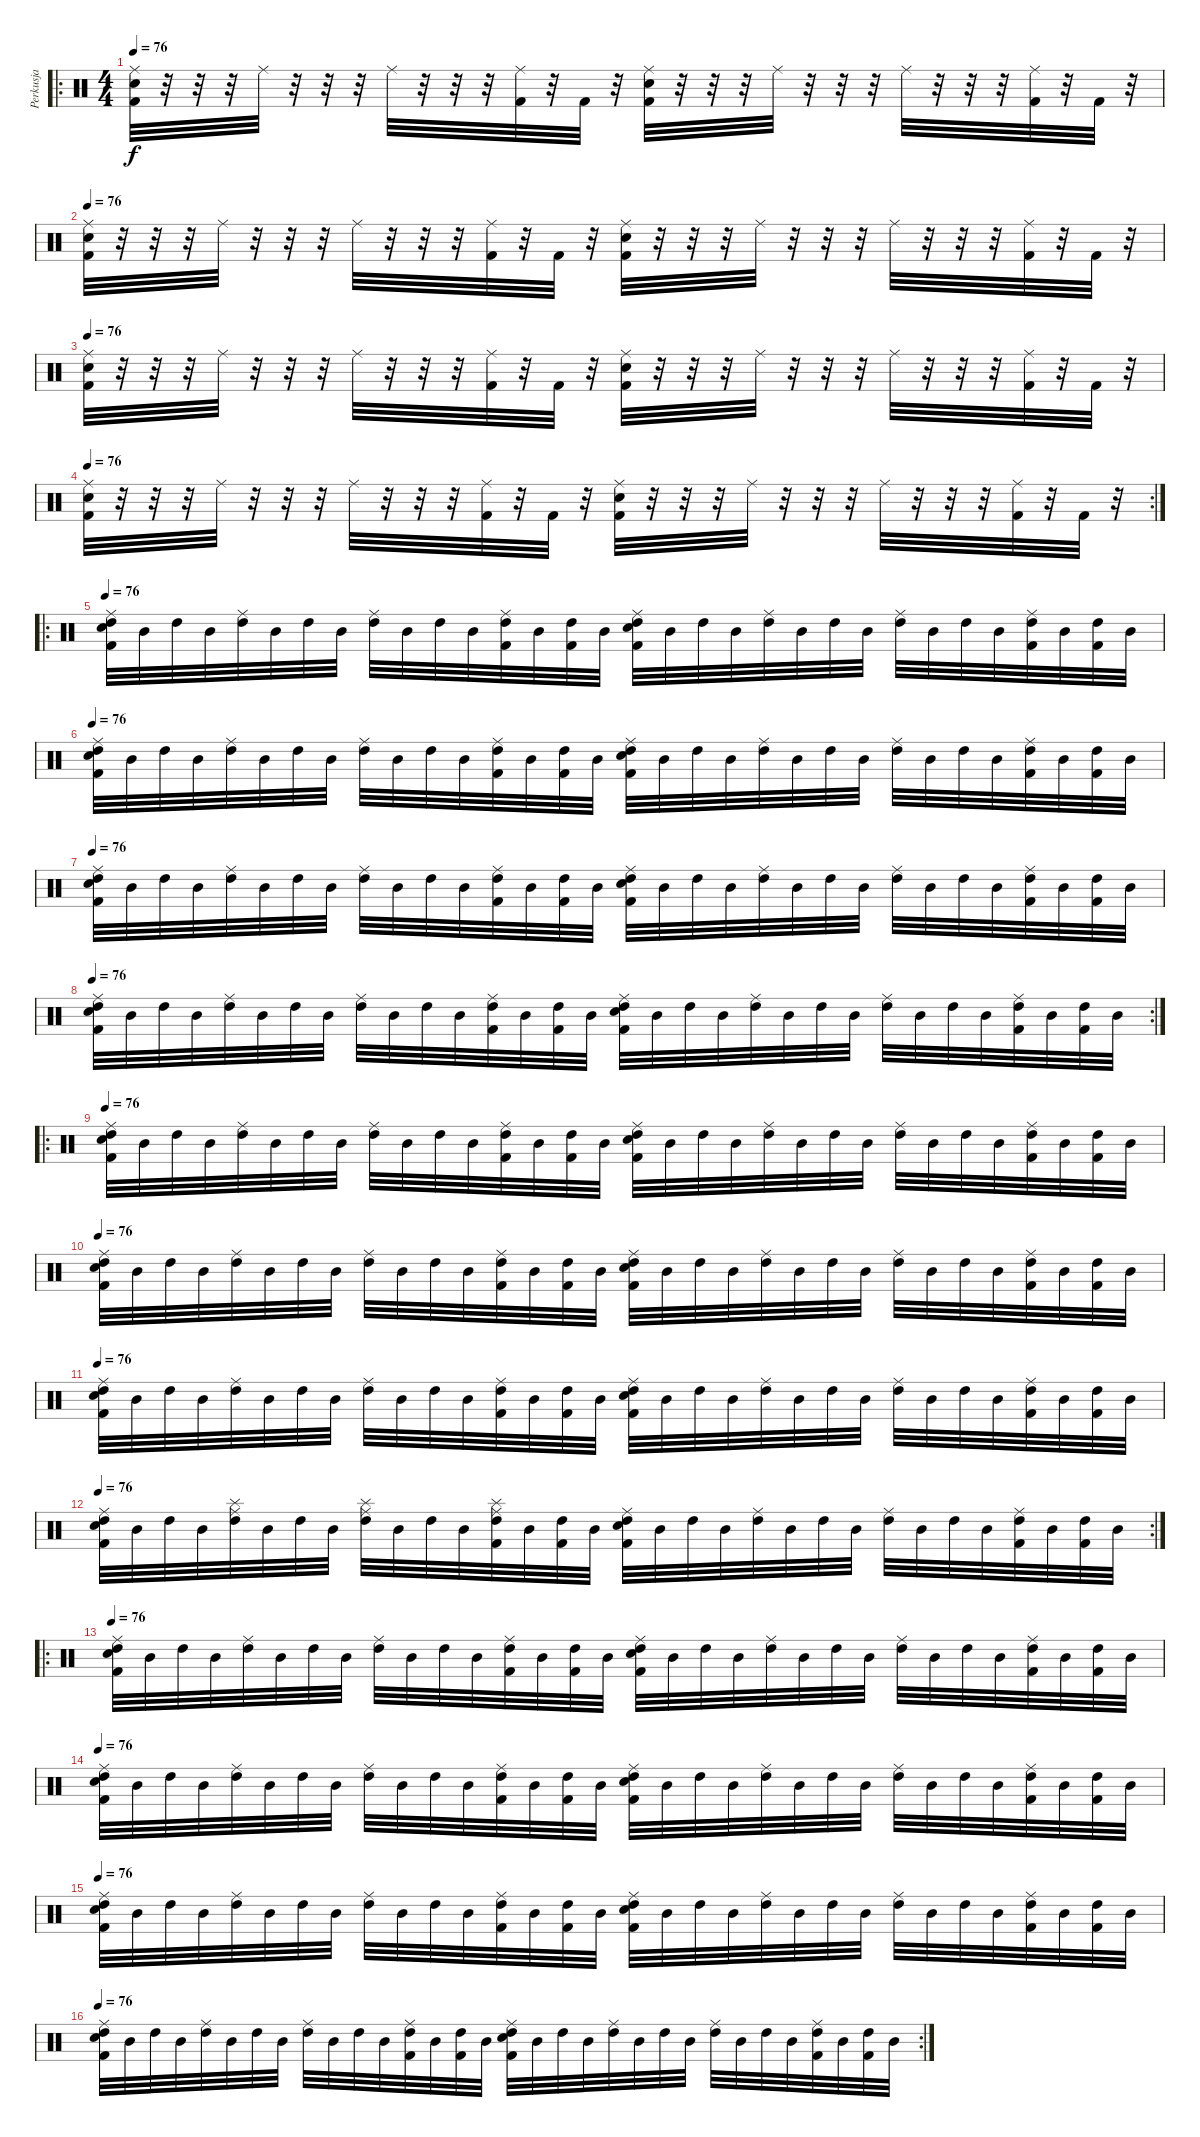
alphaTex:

\track ("Perkusja" "Perkusja") {instrument percussion}
\staff {score}
\articulation defaults
\ro
\ts (4 4)
\tempo 76
\clef neutral
\ks c
("Ride (middle)" "Snare (hit) 2" "Kick (hit) 2").32{dy f} r.32 r.32 r.32 "Ride (middle)".32 r.32 r.32 r.32 "Ride (middle)".32 r.32 r.32 r.32 ("Ride (middle)" "Kick (hit) 2").32 r.32 "Kick (hit) 2".32 r.32 ("Ride (middle)" "Snare (hit) 2" "Kick (hit) 2").32 r.32 r.32 r.32 "Ride (middle)".32 r.32 r.32 r.32 "Ride (middle)".32 r.32 r.32 r.32 ("Ride (middle)" "Kick (hit) 2").32 r.32 "Kick (hit) 2".32 r.32 |
\tempo 76
("Ride (middle)" "Snare (hit) 2" "Kick (hit) 2").32 r.32 r.32 r.32 "Ride (middle)".32 r.32 r.32 r.32 "Ride (middle)".32 r.32 r.32 r.32 ("Ride (middle)" "Kick (hit) 2").32 r.32 "Kick (hit) 2".32 r.32 ("Ride (middle)" "Snare (hit) 2" "Kick (hit) 2").32 r.32 r.32 r.32 "Ride (middle)".32 r.32 r.32 r.32 "Ride (middle)".32 r.32 r.32 r.32 ("Ride (middle)" "Kick (hit) 2").32 r.32 "Kick (hit) 2".32 r.32 |
\tempo 76
("Ride (middle)" "Snare (hit) 2" "Kick (hit) 2").32 r.32 r.32 r.32 "Ride (middle)".32 r.32 r.32 r.32 "Ride (middle)".32 r.32 r.32 r.32 ("Ride (middle)" "Kick (hit) 2").32 r.32 "Kick (hit) 2".32 r.32 ("Ride (middle)" "Snare (hit) 2" "Kick (hit) 2").32 r.32 r.32 r.32 "Ride (middle)".32 r.32 r.32 r.32 "Ride (middle)".32 r.32 r.32 r.32 ("Ride (middle)" "Kick (hit) 2").32 r.32 "Kick (hit) 2".32 r.32 |
\rc 2
\tempo 76
("Ride (middle)" "Snare (hit) 2" "Kick (hit) 2").32 r.32 r.32 r.32 "Ride (middle)".32 r.32 r.32 r.32 "Ride (middle)".32 r.32 r.32 r.32 ("Ride (middle)" "Kick (hit) 2").32 r.32 "Kick (hit) 2".32 r.32 ("Ride (middle)" "Snare (hit) 2" "Kick (hit) 2").32 r.32 r.32 r.32 "Ride (middle)".32 r.32 r.32 r.32 "Ride (middle)".32 r.32 r.32 r.32 ("Ride (middle)" "Kick (hit) 2").32 r.32 "Kick (hit) 2".32 r.32 |
\ro
\tempo 76
("Ride (middle)" "Snare (hit) 2" "Kick (hit) 2" "High Tom (hit)").32 "Mid Tom (hit)".32 "High Tom (hit)".32 "Mid Tom (hit)".32 ("Ride (middle)" "High Tom (hit)").32 "Mid Tom (hit)".32 "High Tom (hit)".32 "Mid Tom (hit)".32 ("Ride (middle)" "High Tom (hit)").32 "Mid Tom (hit)".32 "High Tom (hit)".32 "Mid Tom (hit)".32 ("Ride (middle)" "Kick (hit) 2" "High Tom (hit)").32 "Mid Tom (hit)".32 ("Kick (hit) 2" "High Tom (hit)").32 "Mid Tom (hit)".32 ("Ride (middle)" "Snare (hit) 2" "Kick (hit) 2" "High Tom (hit)").32 "Mid Tom (hit)".32 "High Tom (hit)".32 "Mid Tom (hit)".32 ("Ride (middle)" "High Tom (hit)").32 "Mid Tom (hit)".32 "High Tom (hit)".32 "Mid Tom (hit)".32 ("Ride (middle)" "High Tom (hit)").32 "Mid Tom (hit)".32 "High Tom (hit)".32 "Mid Tom (hit)".32 ("Ride (middle)" "Kick (hit) 2" "High Tom (hit)").32 "Mid Tom (hit)".32 ("Kick (hit) 2" "High Tom (hit)").32 "Mid Tom (hit)".32 |
\tempo 76
("Ride (middle)" "Snare (hit) 2" "Kick (hit) 2" "High Tom (hit)").32 "Mid Tom (hit)".32 "High Tom (hit)".32 "Mid Tom (hit)".32 ("Ride (middle)" "High Tom (hit)").32 "Mid Tom (hit)".32 "High Tom (hit)".32 "Mid Tom (hit)".32 ("Ride (middle)" "High Tom (hit)").32 "Mid Tom (hit)".32 "High Tom (hit)".32 "Mid Tom (hit)".32 ("Ride (middle)" "Kick (hit) 2" "High Tom (hit)").32 "Mid Tom (hit)".32 ("Kick (hit) 2" "High Tom (hit)").32 "Mid Tom (hit)".32 ("Ride (middle)" "Snare (hit) 2" "Kick (hit) 2" "High Tom (hit)").32 "Mid Tom (hit)".32 "High Tom (hit)".32 "Mid Tom (hit)".32 ("Ride (middle)" "High Tom (hit)").32 "Mid Tom (hit)".32 "High Tom (hit)".32 "Mid Tom (hit)".32 ("Ride (middle)" "High Tom (hit)").32 "Mid Tom (hit)".32 "High Tom (hit)".32 "Mid Tom (hit)".32 ("Ride (middle)" "Kick (hit) 2" "High Tom (hit)").32 "Mid Tom (hit)".32 ("Kick (hit) 2" "High Tom (hit)").32 "Mid Tom (hit)".32 |
\tempo 76
("Ride (middle)" "Snare (hit) 2" "Kick (hit) 2" "High Tom (hit)").32 "Mid Tom (hit)".32 "High Tom (hit)".32 "Mid Tom (hit)".32 ("Ride (middle)" "High Tom (hit)").32 "Mid Tom (hit)".32 "High Tom (hit)".32 "Mid Tom (hit)".32 ("Ride (middle)" "High Tom (hit)").32 "Mid Tom (hit)".32 "High Tom (hit)".32 "Mid Tom (hit)".32 ("Ride (middle)" "Kick (hit) 2" "High Tom (hit)").32 "Mid Tom (hit)".32 ("Kick (hit) 2" "High Tom (hit)").32 "Mid Tom (hit)".32 ("Ride (middle)" "Snare (hit) 2" "Kick (hit) 2" "High Tom (hit)").32 "Mid Tom (hit)".32 "High Tom (hit)".32 "Mid Tom (hit)".32 ("Ride (middle)" "High Tom (hit)").32 "Mid Tom (hit)".32 "High Tom (hit)".32 "Mid Tom (hit)".32 ("Ride (middle)" "High Tom (hit)").32 "Mid Tom (hit)".32 "High Tom (hit)".32 "Mid Tom (hit)".32 ("Ride (middle)" "Kick (hit) 2" "High Tom (hit)").32 "Mid Tom (hit)".32 ("Kick (hit) 2" "High Tom (hit)").32 "Mid Tom (hit)".32 |
\rc 2
\tempo 76
("Ride (middle)" "Snare (hit) 2" "Kick (hit) 2" "High Tom (hit)").32 "Mid Tom (hit)".32 "High Tom (hit)".32 "Mid Tom (hit)".32 ("Ride (middle)" "High Tom (hit)").32 "Mid Tom (hit)".32 "High Tom (hit)".32 "Mid Tom (hit)".32 ("Ride (middle)" "High Tom (hit)").32 "Mid Tom (hit)".32 "High Tom (hit)".32 "Mid Tom (hit)".32 ("Ride (middle)" "Kick (hit) 2" "High Tom (hit)").32 "Mid Tom (hit)".32 ("Kick (hit) 2" "High Tom (hit)").32 "Mid Tom (hit)".32 ("Ride (middle)" "Snare (hit) 2" "Kick (hit) 2" "High Tom (hit)").32 "Mid Tom (hit)".32 "High Tom (hit)".32 "Mid Tom (hit)".32 ("Ride (middle)" "High Tom (hit)").32 "Mid Tom (hit)".32 "High Tom (hit)".32 "Mid Tom (hit)".32 ("Ride (middle)" "High Tom (hit)").32 "Mid Tom (hit)".32 "High Tom (hit)".32 "Mid Tom (hit)".32 ("Ride (middle)" "Kick (hit) 2" "High Tom (hit)").32 "Mid Tom (hit)".32 ("Kick (hit) 2" "High Tom (hit)").32 "Mid Tom (hit)".32 |
\ro
\tempo 76
("Ride (middle)" "Snare (hit) 2" "Kick (hit) 2" "High Tom (hit)").32 "Mid Tom (hit)".32 "High Tom (hit)".32 "Mid Tom (hit)".32 ("Ride (middle)" "High Tom (hit)").32 "Mid Tom (hit)".32 "High Tom (hit)".32 "Mid Tom (hit)".32 ("Ride (middle)" "High Tom (hit)").32 "Mid Tom (hit)".32 "High Tom (hit)".32 "Mid Tom (hit)".32 ("Ride (middle)" "Kick (hit) 2" "High Tom (hit)").32 "Mid Tom (hit)".32 ("Kick (hit) 2" "High Tom (hit)").32 "Mid Tom (hit)".32 ("Ride (middle)" "Snare (hit) 2" "Kick (hit) 2" "High Tom (hit)").32 "Mid Tom (hit)".32 "High Tom (hit)".32 "Mid Tom (hit)".32 ("Ride (middle)" "High Tom (hit)").32 "Mid Tom (hit)".32 "High Tom (hit)".32 "Mid Tom (hit)".32 ("Ride (middle)" "High Tom (hit)").32 "Mid Tom (hit)".32 "High Tom (hit)".32 "Mid Tom (hit)".32 ("Ride (middle)" "Kick (hit) 2" "High Tom (hit)").32 "Mid Tom (hit)".32 ("Kick (hit) 2" "High Tom (hit)").32 "Mid Tom (hit)".32 |
\tempo 76
("Ride (middle)" "Snare (hit) 2" "Kick (hit) 2" "High Tom (hit)").32 "Mid Tom (hit)".32 "High Tom (hit)".32 "Mid Tom (hit)".32 ("Ride (middle)" "High Tom (hit)").32 "Mid Tom (hit)".32 "High Tom (hit)".32 "Mid Tom (hit)".32 ("Ride (middle)" "High Tom (hit)").32 "Mid Tom (hit)".32 "High Tom (hit)".32 "Mid Tom (hit)".32 ("Ride (middle)" "Kick (hit) 2" "High Tom (hit)").32 "Mid Tom (hit)".32 ("Kick (hit) 2" "High Tom (hit)").32 "Mid Tom (hit)".32 ("Ride (middle)" "Snare (hit) 2" "Kick (hit) 2" "High Tom (hit)").32 "Mid Tom (hit)".32 "High Tom (hit)".32 "Mid Tom (hit)".32 ("Ride (middle)" "High Tom (hit)").32 "Mid Tom (hit)".32 "High Tom (hit)".32 "Mid Tom (hit)".32 ("Ride (middle)" "High Tom (hit)").32 "Mid Tom (hit)".32 "High Tom (hit)".32 "Mid Tom (hit)".32 ("Ride (middle)" "Kick (hit) 2" "High Tom (hit)").32 "Mid Tom (hit)".32 ("Kick (hit) 2" "High Tom (hit)").32 "Mid Tom (hit)".32 |
\tempo 76
("Ride (middle)" "Snare (hit) 2" "Kick (hit) 2" "High Tom (hit)").32 "Mid Tom (hit)".32 "High Tom (hit)".32 "Mid Tom (hit)".32 ("Ride (middle)" "High Tom (hit)").32 "Mid Tom (hit)".32 "High Tom (hit)".32 "Mid Tom (hit)".32 ("Ride (middle)" "High Tom (hit)").32 "Mid Tom (hit)".32 "High Tom (hit)".32 "Mid Tom (hit)".32 ("Ride (middle)" "Kick (hit) 2" "High Tom (hit)").32 "Mid Tom (hit)".32 ("Kick (hit) 2" "High Tom (hit)").32 "Mid Tom (hit)".32 ("Ride (middle)" "Snare (hit) 2" "Kick (hit) 2" "High Tom (hit)").32 "Mid Tom (hit)".32 "High Tom (hit)".32 "Mid Tom (hit)".32 ("Ride (middle)" "High Tom (hit)").32 "Mid Tom (hit)".32 "High Tom (hit)".32 "Mid Tom (hit)".32 ("Ride (middle)" "High Tom (hit)").32 "Mid Tom (hit)".32 "High Tom (hit)".32 "Mid Tom (hit)".32 ("Ride (middle)" "Kick (hit) 2" "High Tom (hit)").32 "Mid Tom (hit)".32 ("Kick (hit) 2" "High Tom (hit)").32 "Mid Tom (hit)".32 |
\rc 2
\tempo 76
("Ride (middle)" "Snare (hit) 2" "Kick (hit) 2" "High Tom (hit)").32 "Mid Tom (hit)".32 "High Tom (hit)".32 "Mid Tom (hit)".32 ("Ride (middle)" "Splash (hit)" "High Tom (hit)").32 "Mid Tom (hit)".32 "High Tom (hit)".32 "Mid Tom (hit)".32 ("Ride (middle)" "Splash (hit)" "High Tom (hit)").32 "Mid Tom (hit)".32 "High Tom (hit)".32 "Mid Tom (hit)".32 ("Ride (middle)" "Splash (hit)" "Kick (hit) 2" "High Tom (hit)").32 "Mid Tom (hit)".32 ("Kick (hit) 2" "High Tom (hit)").32 "Mid Tom (hit)".32 ("Ride (middle)" "Snare (hit) 2" "Kick (hit) 2" "High Tom (hit)").32 "Mid Tom (hit)".32 "High Tom (hit)".32 "Mid Tom (hit)".32 ("Ride (middle)" "High Tom (hit)").32 "Mid Tom (hit)".32 "High Tom (hit)".32 "Mid Tom (hit)".32 ("Ride (middle)" "High Tom (hit)").32 "Mid Tom (hit)".32 "High Tom (hit)".32 "Mid Tom (hit)".32 ("Ride (middle)" "Kick (hit) 2" "High Tom (hit)").32 "Mid Tom (hit)".32 ("Kick (hit) 2" "High Tom (hit)").32 "Mid Tom (hit)".32 |
\ro
\tempo 76
("Ride (middle)" "Snare (hit) 2" "Kick (hit) 2" "High Tom (hit)").32 "Mid Tom (hit)".32 "High Tom (hit)".32 "Mid Tom (hit)".32 ("Ride (middle)" "High Tom (hit)").32 "Mid Tom (hit)".32 "High Tom (hit)".32 "Mid Tom (hit)".32 ("Ride (middle)" "High Tom (hit)").32 "Mid Tom (hit)".32 "High Tom (hit)".32 "Mid Tom (hit)".32 ("Ride (middle)" "Kick (hit) 2" "High Tom (hit)").32 "Mid Tom (hit)".32 ("Kick (hit) 2" "High Tom (hit)").32 "Mid Tom (hit)".32 ("Ride (middle)" "Snare (hit) 2" "Kick (hit) 2" "High Tom (hit)").32 "Mid Tom (hit)".32 "High Tom (hit)".32 "Mid Tom (hit)".32 ("Ride (middle)" "High Tom (hit)").32 "Mid Tom (hit)".32 "High Tom (hit)".32 "Mid Tom (hit)".32 ("Ride (middle)" "High Tom (hit)").32 "Mid Tom (hit)".32 "High Tom (hit)".32 "Mid Tom (hit)".32 ("Ride (middle)" "Kick (hit) 2" "High Tom (hit)").32 "Mid Tom (hit)".32 ("Kick (hit) 2" "High Tom (hit)").32 "Mid Tom (hit)".32 |
\tempo 76
("Ride (middle)" "Snare (hit) 2" "Kick (hit) 2" "High Tom (hit)").32 "Mid Tom (hit)".32 "High Tom (hit)".32 "Mid Tom (hit)".32 ("Ride (middle)" "High Tom (hit)").32 "Mid Tom (hit)".32 "High Tom (hit)".32 "Mid Tom (hit)".32 ("Ride (middle)" "High Tom (hit)").32 "Mid Tom (hit)".32 "High Tom (hit)".32 "Mid Tom (hit)".32 ("Ride (middle)" "Kick (hit) 2" "High Tom (hit)").32 "Mid Tom (hit)".32 ("Kick (hit) 2" "High Tom (hit)").32 "Mid Tom (hit)".32 ("Ride (middle)" "Snare (hit) 2" "Kick (hit) 2" "High Tom (hit)").32 "Mid Tom (hit)".32 "High Tom (hit)".32 "Mid Tom (hit)".32 ("Ride (middle)" "High Tom (hit)").32 "Mid Tom (hit)".32 "High Tom (hit)".32 "Mid Tom (hit)".32 ("Ride (middle)" "High Tom (hit)").32 "Mid Tom (hit)".32 "High Tom (hit)".32 "Mid Tom (hit)".32 ("Ride (middle)" "Kick (hit) 2" "High Tom (hit)").32 "Mid Tom (hit)".32 ("Kick (hit) 2" "High Tom (hit)").32 "Mid Tom (hit)".32 |
\tempo 76
("Ride (middle)" "Snare (hit) 2" "Kick (hit) 2" "High Tom (hit)").32 "Mid Tom (hit)".32 "High Tom (hit)".32 "Mid Tom (hit)".32 ("Ride (middle)" "High Tom (hit)").32 "Mid Tom (hit)".32 "High Tom (hit)".32 "Mid Tom (hit)".32 ("Ride (middle)" "High Tom (hit)").32 "Mid Tom (hit)".32 "High Tom (hit)".32 "Mid Tom (hit)".32 ("Ride (middle)" "Kick (hit) 2" "High Tom (hit)").32 "Mid Tom (hit)".32 ("Kick (hit) 2" "High Tom (hit)").32 "Mid Tom (hit)".32 ("Ride (middle)" "Snare (hit) 2" "Kick (hit) 2" "High Tom (hit)").32 "Mid Tom (hit)".32 "High Tom (hit)".32 "Mid Tom (hit)".32 ("Ride (middle)" "High Tom (hit)").32 "Mid Tom (hit)".32 "High Tom (hit)".32 "Mid Tom (hit)".32 ("Ride (middle)" "High Tom (hit)").32 "Mid Tom (hit)".32 "High Tom (hit)".32 "Mid Tom (hit)".32 ("Ride (middle)" "Kick (hit) 2" "High Tom (hit)").32 "Mid Tom (hit)".32 ("Kick (hit) 2" "High Tom (hit)").32 "Mid Tom (hit)".32 |
\rc 2
\tempo 76
("Ride (middle)" "Snare (hit) 2" "Kick (hit) 2" "High Tom (hit)").32 "Mid Tom (hit)".32 "High Tom (hit)".32 "Mid Tom (hit)".32 ("Ride (middle)" "High Tom (hit)").32 "Mid Tom (hit)".32 "High Tom (hit)".32 "Mid Tom (hit)".32 ("Ride (middle)" "High Tom (hit)").32 "Mid Tom (hit)".32 "High Tom (hit)".32 "Mid Tom (hit)".32 ("Ride (middle)" "Kick (hit) 2" "High Tom (hit)").32 "Mid Tom (hit)".32 ("Kick (hit) 2" "High Tom (hit)").32 "Mid Tom (hit)".32 ("Ride (middle)" "Snare (hit) 2" "Kick (hit) 2" "High Tom (hit)").32 "Mid Tom (hit)".32 "High Tom (hit)".32 "Mid Tom (hit)".32 ("Ride (middle)" "High Tom (hit)").32 "Mid Tom (hit)".32 "High Tom (hit)".32 "Mid Tom (hit)".32 ("Ride (middle)" "High Tom (hit)").32 "Mid Tom (hit)".32 "High Tom (hit)".32 "Mid Tom (hit)".32 ("Ride (middle)" "Kick (hit) 2" "High Tom (hit)").32 "Mid Tom (hit)".32 ("Kick (hit) 2" "High Tom (hit)").32 "Mid Tom (hit)".32
